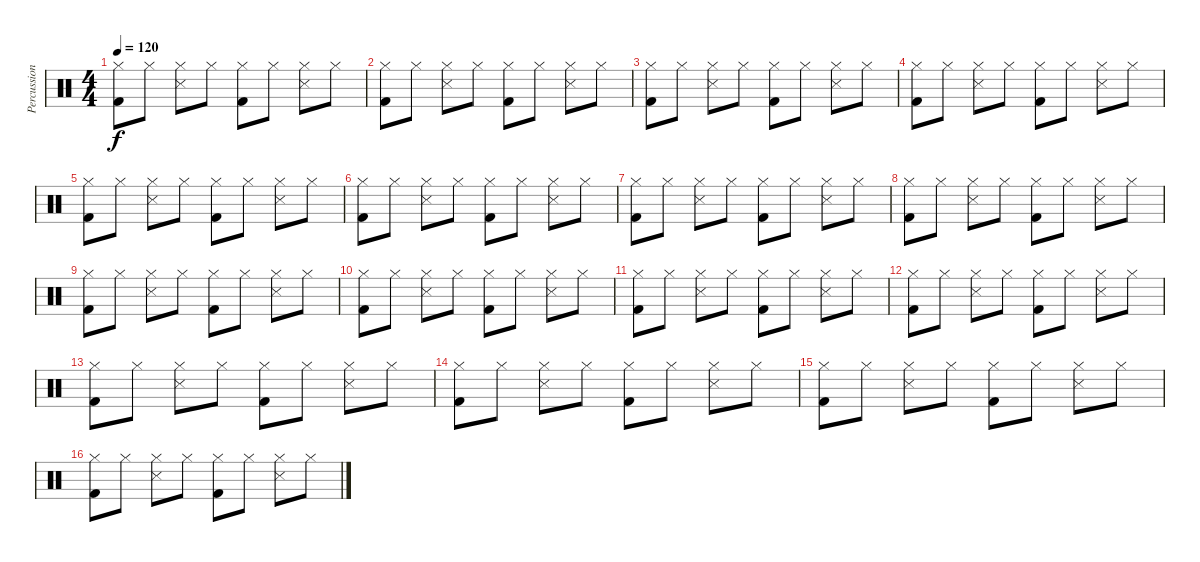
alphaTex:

\track ("Percussions" "Percussion") {instrument percussion}
\staff {score}
\articulation defaults
\ts (4 4)
\tempo 120
\clef neutral
\ks c
("Kick (hit) 2" "Hi-Hat (closed)").8{dy f} "Hi-Hat (closed)".8 ("Snare (side stick) 3" "Hi-Hat (closed)").8 "Hi-Hat (closed)".8 ("Kick (hit) 2" "Hi-Hat (closed)").8 "Hi-Hat (closed)".8 ("Snare (side stick) 3" "Hi-Hat (closed)").8 "Hi-Hat (closed)".8 |
("Kick (hit) 2" "Hi-Hat (closed)").8 "Hi-Hat (closed)".8 ("Snare (side stick) 3" "Hi-Hat (closed)").8 "Hi-Hat (closed)".8 ("Kick (hit) 2" "Hi-Hat (closed)").8 "Hi-Hat (closed)".8 ("Snare (side stick) 3" "Hi-Hat (closed)").8 "Hi-Hat (closed)".8 |
("Kick (hit) 2" "Hi-Hat (closed)").8 "Hi-Hat (closed)".8 ("Snare (side stick) 3" "Hi-Hat (closed)").8 "Hi-Hat (closed)".8 ("Kick (hit) 2" "Hi-Hat (closed)").8 "Hi-Hat (closed)".8 ("Snare (side stick) 3" "Hi-Hat (closed)").8 "Hi-Hat (closed)".8 |
("Kick (hit) 2" "Hi-Hat (closed)").8 "Hi-Hat (closed)".8 ("Snare (side stick) 3" "Hi-Hat (closed)").8 "Hi-Hat (closed)".8 ("Kick (hit) 2" "Hi-Hat (closed)").8 "Hi-Hat (closed)".8 ("Snare (side stick) 3" "Hi-Hat (closed)").8 "Hi-Hat (closed)".8 |
("Kick (hit) 2" "Hi-Hat (closed)").8 "Hi-Hat (closed)".8 ("Snare (side stick) 3" "Hi-Hat (closed)").8 "Hi-Hat (closed)".8 ("Kick (hit) 2" "Hi-Hat (closed)").8 "Hi-Hat (closed)".8 ("Snare (side stick) 3" "Hi-Hat (closed)").8 "Hi-Hat (closed)".8 |
("Kick (hit) 2" "Hi-Hat (closed)").8 "Hi-Hat (closed)".8 ("Snare (side stick) 3" "Hi-Hat (closed)").8 "Hi-Hat (closed)".8 ("Kick (hit) 2" "Hi-Hat (closed)").8 "Hi-Hat (closed)".8 ("Snare (side stick) 3" "Hi-Hat (closed)").8 "Hi-Hat (closed)".8 |
("Kick (hit) 2" "Hi-Hat (closed)").8 "Hi-Hat (closed)".8 ("Snare (side stick) 3" "Hi-Hat (closed)").8 "Hi-Hat (closed)".8 ("Kick (hit) 2" "Hi-Hat (closed)").8 "Hi-Hat (closed)".8 ("Snare (side stick) 3" "Hi-Hat (closed)").8 "Hi-Hat (closed)".8 |
("Kick (hit) 2" "Hi-Hat (closed)").8 "Hi-Hat (closed)".8 ("Snare (side stick) 3" "Hi-Hat (closed)").8 "Hi-Hat (closed)".8 ("Kick (hit) 2" "Hi-Hat (closed)").8 "Hi-Hat (closed)".8 ("Snare (side stick) 3" "Hi-Hat (closed)").8 "Hi-Hat (closed)".8 |
("Kick (hit) 2" "Hi-Hat (closed)").8 "Hi-Hat (closed)".8 ("Snare (side stick) 3" "Hi-Hat (closed)").8 "Hi-Hat (closed)".8 ("Kick (hit) 2" "Hi-Hat (closed)").8 "Hi-Hat (closed)".8 ("Snare (side stick) 3" "Hi-Hat (closed)").8 "Hi-Hat (closed)".8 |
("Kick (hit) 2" "Hi-Hat (closed)").8 "Hi-Hat (closed)".8 ("Snare (side stick) 3" "Hi-Hat (closed)").8 "Hi-Hat (closed)".8 ("Kick (hit) 2" "Hi-Hat (closed)").8 "Hi-Hat (closed)".8 ("Snare (side stick) 3" "Hi-Hat (closed)").8 "Hi-Hat (closed)".8 |
("Kick (hit) 2" "Hi-Hat (closed)").8 "Hi-Hat (closed)".8 ("Snare (side stick) 3" "Hi-Hat (closed)").8 "Hi-Hat (closed)".8 ("Kick (hit) 2" "Hi-Hat (closed)").8 "Hi-Hat (closed)".8 ("Snare (side stick) 3" "Hi-Hat (closed)").8 "Hi-Hat (closed)".8 |
("Kick (hit) 2" "Hi-Hat (closed)").8 "Hi-Hat (closed)".8 ("Snare (side stick) 3" "Hi-Hat (closed)").8 "Hi-Hat (closed)".8 ("Kick (hit) 2" "Hi-Hat (closed)").8 "Hi-Hat (closed)".8 ("Snare (side stick) 3" "Hi-Hat (closed)").8 "Hi-Hat (closed)".8 |
("Kick (hit) 2" "Hi-Hat (closed)").8 "Hi-Hat (closed)".8 ("Snare (side stick) 3" "Hi-Hat (closed)").8 "Hi-Hat (closed)".8 ("Kick (hit) 2" "Hi-Hat (closed)").8 "Hi-Hat (closed)".8 ("Snare (side stick) 3" "Hi-Hat (closed)").8 "Hi-Hat (closed)".8 |
("Kick (hit) 2" "Hi-Hat (closed)").8 "Hi-Hat (closed)".8 ("Snare (side stick) 3" "Hi-Hat (closed)").8 "Hi-Hat (closed)".8 ("Kick (hit) 2" "Hi-Hat (closed)").8 "Hi-Hat (closed)".8 ("Snare (side stick) 3" "Hi-Hat (closed)").8 "Hi-Hat (closed)".8 |
("Kick (hit) 2" "Hi-Hat (closed)").8 "Hi-Hat (closed)".8 ("Snare (side stick) 3" "Hi-Hat (closed)").8 "Hi-Hat (closed)".8 ("Kick (hit) 2" "Hi-Hat (closed)").8 "Hi-Hat (closed)".8 ("Snare (side stick) 3" "Hi-Hat (closed)").8 "Hi-Hat (closed)".8 |
("Kick (hit) 2" "Hi-Hat (closed)").8 "Hi-Hat (closed)".8 ("Snare (side stick) 3" "Hi-Hat (closed)").8 "Hi-Hat (closed)".8 ("Kick (hit) 2" "Hi-Hat (closed)").8 "Hi-Hat (closed)".8 ("Snare (side stick) 3" "Hi-Hat (closed)").8 "Hi-Hat (closed)".8
